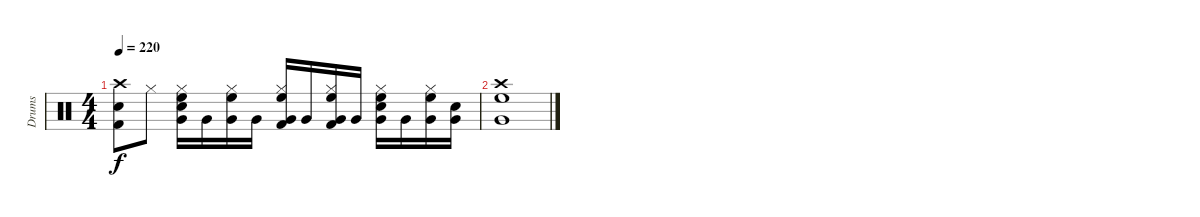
\track ("Drums" "Drums") {instrument percussion}
\staff {score}
\articulation defaults
\ts (4 4)
\tempo 220
\clef neutral
\ks c
("Crash high (hit)" "Snare (hit) 2" "Kick (hit) 2").8{dy f} "Hi-Hat (closed)".8 ("High Floor Tom (hit)" "Very Low Tom (hit)" "Hi-Hat (closed)" "Snare (hit) 2").16 "Very Low Tom (hit)".16 ("High Floor Tom (hit)" "Very Low Tom (hit)" "Hi-Hat (closed)").16 "Very Low Tom (hit)".16 ("High Floor Tom (hit)" "Very Low Tom (hit)" "Hi-Hat (closed)" "Kick (hit) 2").16 "Very Low Tom (hit)".16 ("High Floor Tom (hit)" "Very Low Tom (hit)" "Hi-Hat (closed)" "Kick (hit) 2").16 "Very Low Tom (hit)".16 ("High Floor Tom (hit)" "Very Low Tom (hit)" "Hi-Hat (closed)" "Snare (hit) 2").16 "Very Low Tom (hit)".16 ("High Floor Tom (hit)" "Very Low Tom (hit)" "Hi-Hat (closed)").16 ("Very Low Tom (hit)" "Snare (hit) 2").16 |
("High Floor Tom (hit)" "Crash high (hit)" "Very Low Tom (hit)").1
